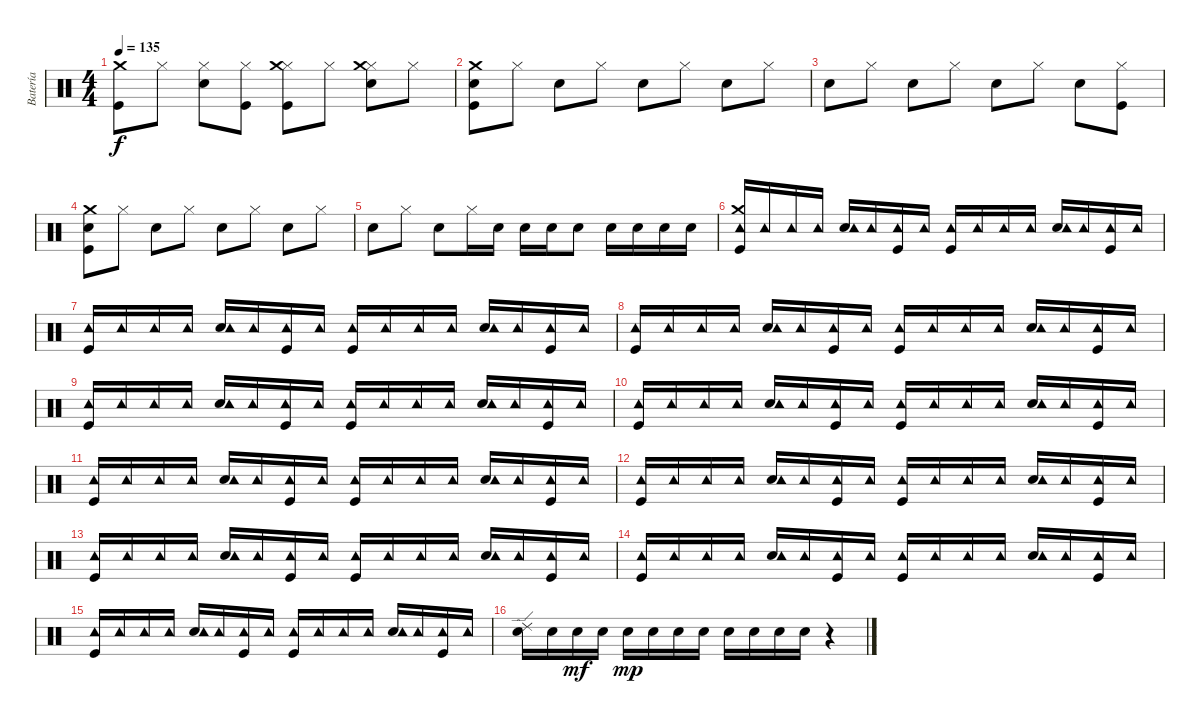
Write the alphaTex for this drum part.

\track ("Batería" "Batería") {instrument percussion}
\staff {score}
\articulation defaults
\ts (4 4)
\tempo 135
\clef neutral
\ks c
("Kick (hit)" "Crash medium (hit)").8{dy f} "Hi-Hat (closed)".8 ("Hi-Hat (closed)" "Snare (hit) 2").8 ("Hi-Hat (closed)" "Kick (hit)").8 ("Hi-Hat (closed)" "Kick (hit)" "Crash medium (hit)").8 "Hi-Hat (closed)".8 ("Hi-Hat (closed)" "Snare (hit) 2" "Crash medium (hit)").8 "Hi-Hat (closed)".8 |
("Kick (hit)" "Snare (hit) 2" "Crash medium (hit)").8 "Hi-Hat (closed)".8 "Snare (hit) 2".8 "Hi-Hat (closed)".8 "Snare (hit) 2".8 "Hi-Hat (closed)".8 "Snare (hit) 2".8 "Hi-Hat (closed)".8 |
"Snare (hit) 2".8 "Hi-Hat (closed)".8 "Snare (hit) 2".8 "Hi-Hat (closed)".8 "Snare (hit) 2".8 "Hi-Hat (closed)".8 "Snare (hit) 2".8 ("Kick (hit)" "Hi-Hat (closed)").8 |
("Kick (hit)" "Snare (hit) 2" "Crash medium (hit)").8 "Hi-Hat (closed)".8 "Snare (hit) 2".8 "Hi-Hat (closed)".8 "Snare (hit) 2".8 "Hi-Hat (closed)".8 "Snare (hit) 2".8 "Hi-Hat (closed)".8 |
"Snare (hit) 2".8 "Hi-Hat (closed)".8 "Snare (hit) 2".8 "Hi-Hat (closed)".16 "Snare (hit) 2".16 "Snare (hit) 2".16 "Snare (hit) 2".16 "Snare (hit) 2".8 "Snare (hit) 2".16 "Snare (hit) 2".16 "Snare (hit) 2".16 "Snare (hit) 2".16 |
("Kick (hit)" "Tambourine (hit)" "Crash medium (hit)").16 "Tambourine (hit)".16 "Tambourine (hit)".16 "Tambourine (hit)".16 ("Snare (hit) 2" "Tambourine (hit)").16 "Tambourine (hit)".16 ("Kick (hit)" "Tambourine (hit)").16 "Tambourine (hit)".16 ("Kick (hit)" "Tambourine (hit)").16 "Tambourine (hit)".16 "Tambourine (hit)".16 "Tambourine (hit)".16 ("Snare (hit) 2" "Tambourine (hit)").16 "Tambourine (hit)".16 ("Kick (hit)" "Tambourine (hit)").16 "Tambourine (hit)".16 |
("Kick (hit)" "Tambourine (hit)").16 "Tambourine (hit)".16 "Tambourine (hit)".16 "Tambourine (hit)".16 ("Snare (hit) 2" "Tambourine (hit)").16 "Tambourine (hit)".16 ("Kick (hit)" "Tambourine (hit)").16 "Tambourine (hit)".16 ("Kick (hit)" "Tambourine (hit)").16 "Tambourine (hit)".16 "Tambourine (hit)".16 "Tambourine (hit)".16 ("Snare (hit) 2" "Tambourine (hit)").16 "Tambourine (hit)".16 ("Kick (hit)" "Tambourine (hit)").16 "Tambourine (hit)".16 |
("Kick (hit)" "Tambourine (hit)").16 "Tambourine (hit)".16 "Tambourine (hit)".16 "Tambourine (hit)".16 ("Snare (hit) 2" "Tambourine (hit)").16 "Tambourine (hit)".16 ("Kick (hit)" "Tambourine (hit)").16 "Tambourine (hit)".16 ("Kick (hit)" "Tambourine (hit)").16 "Tambourine (hit)".16 "Tambourine (hit)".16 "Tambourine (hit)".16 ("Snare (hit) 2" "Tambourine (hit)").16 "Tambourine (hit)".16 ("Kick (hit)" "Tambourine (hit)").16 "Tambourine (hit)".16 |
("Kick (hit)" "Tambourine (hit)").16 "Tambourine (hit)".16 "Tambourine (hit)".16 "Tambourine (hit)".16 ("Snare (hit) 2" "Tambourine (hit)").16 "Tambourine (hit)".16 ("Kick (hit)" "Tambourine (hit)").16 "Tambourine (hit)".16 ("Kick (hit)" "Tambourine (hit)").16 "Tambourine (hit)".16 "Tambourine (hit)".16 "Tambourine (hit)".16 ("Snare (hit) 2" "Tambourine (hit)").16 "Tambourine (hit)".16 ("Kick (hit)" "Tambourine (hit)").16 "Tambourine (hit)".16 |
("Kick (hit)" "Tambourine (hit)").16 "Tambourine (hit)".16 "Tambourine (hit)".16 "Tambourine (hit)".16 ("Snare (hit) 2" "Tambourine (hit)").16 "Tambourine (hit)".16 ("Kick (hit)" "Tambourine (hit)").16 "Tambourine (hit)".16 ("Kick (hit)" "Tambourine (hit)").16 "Tambourine (hit)".16 "Tambourine (hit)".16 "Tambourine (hit)".16 ("Snare (hit) 2" "Tambourine (hit)").16 "Tambourine (hit)".16 ("Kick (hit)" "Tambourine (hit)").16 "Tambourine (hit)".16 |
("Kick (hit)" "Tambourine (hit)").16 "Tambourine (hit)".16 "Tambourine (hit)".16 "Tambourine (hit)".16 ("Snare (hit) 2" "Tambourine (hit)").16 "Tambourine (hit)".16 ("Kick (hit)" "Tambourine (hit)").16 "Tambourine (hit)".16 ("Kick (hit)" "Tambourine (hit)").16 "Tambourine (hit)".16 "Tambourine (hit)".16 "Tambourine (hit)".16 ("Snare (hit) 2" "Tambourine (hit)").16 "Tambourine (hit)".16 ("Kick (hit)" "Tambourine (hit)").16 "Tambourine (hit)".16 |
("Kick (hit)" "Tambourine (hit)").16 "Tambourine (hit)".16 "Tambourine (hit)".16 "Tambourine (hit)".16 ("Snare (hit) 2" "Tambourine (hit)").16 "Tambourine (hit)".16 ("Kick (hit)" "Tambourine (hit)").16 "Tambourine (hit)".16 ("Kick (hit)" "Tambourine (hit)").16 "Tambourine (hit)".16 "Tambourine (hit)".16 "Tambourine (hit)".16 ("Snare (hit) 2" "Tambourine (hit)").16 "Tambourine (hit)".16 ("Kick (hit)" "Tambourine (hit)").16 "Tambourine (hit)".16 |
("Kick (hit)" "Tambourine (hit)").16 "Tambourine (hit)".16 "Tambourine (hit)".16 "Tambourine (hit)".16 ("Snare (hit) 2" "Tambourine (hit)").16 "Tambourine (hit)".16 ("Kick (hit)" "Tambourine (hit)").16 "Tambourine (hit)".16 ("Kick (hit)" "Tambourine (hit)").16 "Tambourine (hit)".16 "Tambourine (hit)".16 "Tambourine (hit)".16 ("Snare (hit) 2" "Tambourine (hit)").16 "Tambourine (hit)".16 ("Kick (hit)" "Tambourine (hit)").16 "Tambourine (hit)".16 |
("Kick (hit)" "Tambourine (hit)").16 "Tambourine (hit)".16 "Tambourine (hit)".16 "Tambourine (hit)".16 ("Snare (hit) 2" "Tambourine (hit)").16 "Tambourine (hit)".16 ("Kick (hit)" "Tambourine (hit)").16 "Tambourine (hit)".16 ("Kick (hit)" "Tambourine (hit)").16 "Tambourine (hit)".16 "Tambourine (hit)".16 "Tambourine (hit)".16 ("Snare (hit) 2" "Tambourine (hit)").16 "Tambourine (hit)".16 ("Kick (hit)" "Tambourine (hit)").16 "Tambourine (hit)".16 |
("Kick (hit)" "Tambourine (hit)").16 "Tambourine (hit)".16 "Tambourine (hit)".16 "Tambourine (hit)".16 ("Snare (hit) 2" "Tambourine (hit)").16 "Tambourine (hit)".16 ("Kick (hit)" "Tambourine (hit)").16 "Tambourine (hit)".16 ("Kick (hit)" "Tambourine (hit)").16 "Tambourine (hit)".16 "Tambourine (hit)".16 "Tambourine (hit)".16 ("Snare (hit) 2" "Tambourine (hit)").16 "Tambourine (hit)".16 ("Kick (hit)" "Tambourine (hit)").16 "Tambourine (hit)".16 |
("Ride (edge) 2" "Snare (hit) 2").16 "Snare (hit) 2".16 "Snare (hit) 2".16{dy mf} "Snare (hit) 2".16 "Snare (hit) 2".16{dy mp} "Snare (hit) 2".16 "Snare (hit) 2".16 "Snare (hit) 2".16 "Snare (hit) 2".16 "Snare (hit) 2".16 "Snare (hit) 2".16 "Snare (hit) 2".16 r.4
